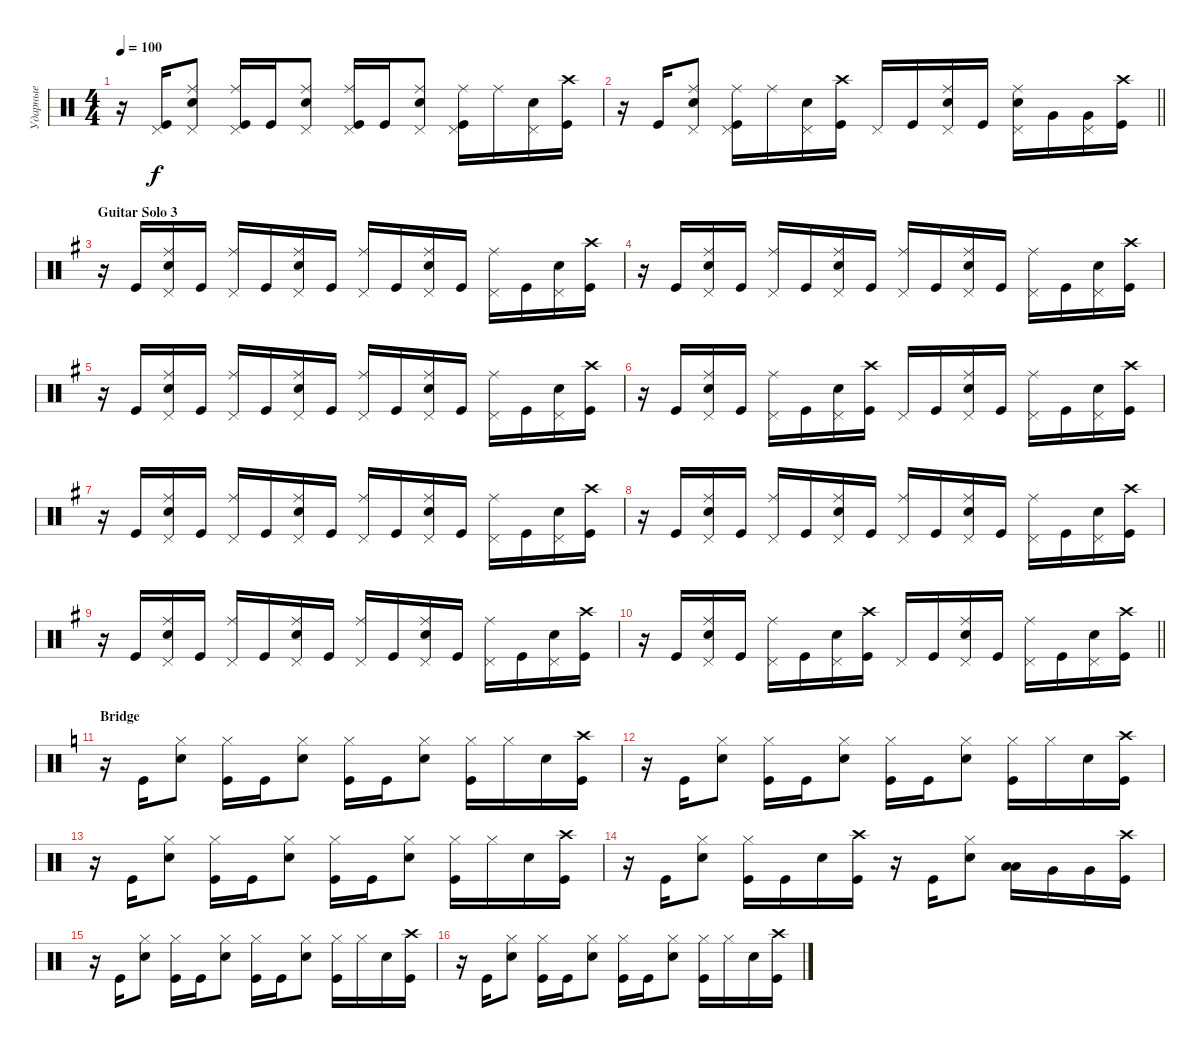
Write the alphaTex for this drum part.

\track ("Ударные" "Ударные") {instrument percussion}
\staff {score}
\articulation defaults
\ts (4 4)
\tempo 100
\clef neutral
\ks aminor
r.16{dy f} ("Kick (hit)" "Pedal Hi-Hat (hit)").16 ("Ride (middle)" "Snare (hit) 2" "Pedal Hi-Hat (hit)").8 ("Ride (middle)" "Kick (hit)" "Pedal Hi-Hat (hit)").16 "Kick (hit)".16 ("Snare (hit) 2" "Ride (middle)" "Pedal Hi-Hat (hit)").8 ("Kick (hit)" "Ride (middle)" "Pedal Hi-Hat (hit)").16 "Kick (hit)".16 ("Snare (hit) 2" "Ride (middle)" "Pedal Hi-Hat (hit)").8 ("Kick (hit)" "Ride (middle)" "Pedal Hi-Hat (hit)").16 "Ride (middle)".16 ("Snare (hit) 2" "Pedal Hi-Hat (hit)").16 ("Kick (hit)" "Crash high (hit)").16 |
\barLineRight lightlight
r.16 "Kick (hit)".16 ("Pedal Hi-Hat (hit)" "Snare (hit) 2" "Ride (middle)").8 ("Ride (middle)" "Kick (hit)" "Pedal Hi-Hat (hit)").16 "Ride (middle)".16 ("Snare (hit) 2" "Pedal Hi-Hat (hit)").16 ("Kick (hit)" "Crash high (hit)").16 "Pedal Hi-Hat (hit)".16 "Kick (hit)".16 ("Pedal Hi-Hat (hit)" "Snare (hit) 2" "Ride (middle)").16{bd 240} "Kick (hit)".16 ("Snare (hit) 2" "Ride (middle)" "Pedal Hi-Hat (hit)").16 "Very Low Tom (hit)".16 ("Very Low Tom (hit)" "Pedal Hi-Hat (hit)").16 ("Kick (hit)" "Crash high (hit)").16 |
\section ("" "Guitar Solo 3")
\ks eminor
r.16 "Kick (hit)".16 ("Snare (hit) 2" "Ride (middle)" "Pedal Hi-Hat (hit)").16 "Kick (hit)".16 ("Ride (middle)" "Pedal Hi-Hat (hit)").16 "Kick (hit)".16 ("Snare (hit) 2" "Ride (middle)" "Pedal Hi-Hat (hit)").16 "Kick (hit)".16 ("Ride (middle)" "Pedal Hi-Hat (hit)").16 "Kick (hit)".16 ("Snare (hit) 2" "Ride (middle)" "Pedal Hi-Hat (hit)").16 "Kick (hit)".16 ("Ride (middle)" "Pedal Hi-Hat (hit)").16 "Kick (hit)".16 ("Snare (hit) 2" "Pedal Hi-Hat (hit)").16 ("Kick (hit)" "Crash high (hit)").16 |
r.16 "Kick (hit)".16 ("Snare (hit) 2" "Ride (middle)" "Pedal Hi-Hat (hit)").16 "Kick (hit)".16 ("Ride (middle)" "Pedal Hi-Hat (hit)").16 "Kick (hit)".16 ("Snare (hit) 2" "Ride (middle)" "Pedal Hi-Hat (hit)").16 "Kick (hit)".16 ("Ride (middle)" "Pedal Hi-Hat (hit)").16 "Kick (hit)".16 ("Snare (hit) 2" "Ride (middle)" "Pedal Hi-Hat (hit)").16 "Kick (hit)".16 ("Ride (middle)" "Pedal Hi-Hat (hit)").16 "Kick (hit)".16 ("Snare (hit) 2" "Pedal Hi-Hat (hit)").16 ("Kick (hit)" "Crash high (hit)").16 |
r.16 "Kick (hit)".16 ("Snare (hit) 2" "Ride (middle)" "Pedal Hi-Hat (hit)").16 "Kick (hit)".16 ("Ride (middle)" "Pedal Hi-Hat (hit)").16 "Kick (hit)".16 ("Snare (hit) 2" "Ride (middle)" "Pedal Hi-Hat (hit)").16 "Kick (hit)".16 ("Ride (middle)" "Pedal Hi-Hat (hit)").16 "Kick (hit)".16 ("Snare (hit) 2" "Ride (middle)" "Pedal Hi-Hat (hit)").16 "Kick (hit)".16 ("Ride (middle)" "Pedal Hi-Hat (hit)").16 "Kick (hit)".16 ("Snare (hit) 2" "Pedal Hi-Hat (hit)").16 ("Kick (hit)" "Crash high (hit)").16 |
r.16 "Kick (hit)".16 ("Snare (hit) 2" "Ride (middle)" "Pedal Hi-Hat (hit)").16 "Kick (hit)".16 ("Pedal Hi-Hat (hit)" "Ride (middle)").16 "Kick (hit)".16 ("Snare (hit) 2" "Pedal Hi-Hat (hit)").16 ("Kick (hit)" "Crash high (hit)").16 "Pedal Hi-Hat (hit)".16 "Kick (hit)".16 ("Snare (hit) 2" "Ride (middle)" "Pedal Hi-Hat (hit)").16 "Kick (hit)".16 ("Ride (middle)" "Pedal Hi-Hat (hit)").16 "Kick (hit)".16 ("Snare (hit) 2" "Pedal Hi-Hat (hit)").16 ("Kick (hit)" "Crash high (hit)").16 |
r.16 "Kick (hit)".16 ("Snare (hit) 2" "Ride (middle)" "Pedal Hi-Hat (hit)").16 "Kick (hit)".16 ("Ride (middle)" "Pedal Hi-Hat (hit)").16 "Kick (hit)".16 ("Snare (hit) 2" "Ride (middle)" "Pedal Hi-Hat (hit)").16 "Kick (hit)".16 ("Ride (middle)" "Pedal Hi-Hat (hit)").16 "Kick (hit)".16 ("Snare (hit) 2" "Ride (middle)" "Pedal Hi-Hat (hit)").16 "Kick (hit)".16 ("Ride (middle)" "Pedal Hi-Hat (hit)").16 "Kick (hit)".16 ("Snare (hit) 2" "Pedal Hi-Hat (hit)").16 ("Kick (hit)" "Crash high (hit)").16 |
r.16 "Kick (hit)".16 ("Snare (hit) 2" "Ride (middle)" "Pedal Hi-Hat (hit)").16 "Kick (hit)".16 ("Ride (middle)" "Pedal Hi-Hat (hit)").16 "Kick (hit)".16 ("Snare (hit) 2" "Ride (middle)" "Pedal Hi-Hat (hit)").16 "Kick (hit)".16 ("Ride (middle)" "Pedal Hi-Hat (hit)").16 "Kick (hit)".16 ("Snare (hit) 2" "Ride (middle)" "Pedal Hi-Hat (hit)").16 "Kick (hit)".16 ("Ride (middle)" "Pedal Hi-Hat (hit)").16 "Kick (hit)".16 ("Snare (hit) 2" "Pedal Hi-Hat (hit)").16 ("Kick (hit)" "Crash high (hit)").16 |
r.16 "Kick (hit)".16 ("Snare (hit) 2" "Ride (middle)" "Pedal Hi-Hat (hit)").16 "Kick (hit)".16 ("Ride (middle)" "Pedal Hi-Hat (hit)").16 "Kick (hit)".16 ("Snare (hit) 2" "Ride (middle)" "Pedal Hi-Hat (hit)").16 "Kick (hit)".16 ("Ride (middle)" "Pedal Hi-Hat (hit)").16 "Kick (hit)".16 ("Snare (hit) 2" "Ride (middle)" "Pedal Hi-Hat (hit)").16 "Kick (hit)".16 ("Ride (middle)" "Pedal Hi-Hat (hit)").16 "Kick (hit)".16 ("Snare (hit) 2" "Pedal Hi-Hat (hit)").16 ("Kick (hit)" "Crash high (hit)").16 |
\barLineRight lightlight
r.16 "Kick (hit)".16 ("Snare (hit) 2" "Ride (middle)" "Pedal Hi-Hat (hit)").16 "Kick (hit)".16 ("Pedal Hi-Hat (hit)" "Ride (middle)").16 "Kick (hit)".16 ("Snare (hit) 2" "Pedal Hi-Hat (hit)").16 ("Kick (hit)" "Crash high (hit)").16 "Pedal Hi-Hat (hit)".16 "Kick (hit)".16 ("Snare (hit) 2" "Ride (middle)" "Pedal Hi-Hat (hit)").16 "Kick (hit)".16 ("Ride (middle)" "Pedal Hi-Hat (hit)").16 "Kick (hit)".16 ("Snare (hit) 2" "Pedal Hi-Hat (hit)").16 ("Kick (hit)" "Crash high (hit)").16 |
\section ("" "Bridge")
\ks aminor
r.16 "Kick (hit)".16 ("Hi-Hat (closed)" "Snare (hit) 2").8 ("Hi-Hat (closed)" "Kick (hit)").16 "Kick (hit)".16 ("Snare (hit) 2" "Hi-Hat (closed)").8 ("Kick (hit)" "Hi-Hat (closed)").16 "Kick (hit)".16 ("Snare (hit) 2" "Hi-Hat (closed)").8 ("Kick (hit)" "Hi-Hat (closed)").16 "Hi-Hat (closed)".16 "Snare (hit) 2".16 ("Kick (hit)" "Crash high (hit)").16 |
r.16 "Kick (hit)".16 ("Hi-Hat (closed)" "Snare (hit) 2").8 ("Hi-Hat (closed)" "Kick (hit)").16 "Kick (hit)".16 ("Snare (hit) 2" "Hi-Hat (closed)").8 ("Kick (hit)" "Hi-Hat (closed)").16 "Kick (hit)".16 ("Snare (hit) 2" "Hi-Hat (closed)").8 ("Kick (hit)" "Hi-Hat (closed)").16 "Hi-Hat (closed)".16 "Snare (hit) 2".16 ("Kick (hit)" "Crash high (hit)").16 |
r.16 "Kick (hit)".16 ("Hi-Hat (closed)" "Snare (hit) 2").8 ("Hi-Hat (closed)" "Kick (hit)").16 "Kick (hit)".16 ("Snare (hit) 2" "Hi-Hat (closed)").8 ("Kick (hit)" "Hi-Hat (closed)").16 "Kick (hit)".16 ("Snare (hit) 2" "Hi-Hat (closed)").8 ("Kick (hit)" "Hi-Hat (closed)").16 "Hi-Hat (closed)".16 "Snare (hit) 2".16 ("Kick (hit)" "Crash high (hit)").16 |
r.16 "Kick (hit)".16 ("Hi-Hat (closed)" "Snare (hit) 2").8 ("Hi-Hat (closed)" "Kick (hit)").16 "Kick (hit)".16 "Snare (hit) 2".16 ("Kick (hit)" "Crash high (hit)").16 r.16 "Kick (hit)".16 ("Snare (hit) 2" "Hi-Hat (closed)").8 ("Low Tom (hit)" "Low Tom (hit)").16{bd 240} "Very Low Tom (hit)".16 "Very Low Tom (hit)".16 ("Kick (hit)" "Crash high (hit)").16 |
r.16 "Kick (hit)".16 ("Hi-Hat (closed)" "Snare (hit) 2").8 ("Hi-Hat (closed)" "Kick (hit)").16 "Kick (hit)".16 ("Snare (hit) 2" "Hi-Hat (closed)").8 ("Kick (hit)" "Hi-Hat (closed)").16 "Kick (hit)".16 ("Snare (hit) 2" "Hi-Hat (closed)").8 ("Kick (hit)" "Hi-Hat (closed)").16 "Hi-Hat (closed)".16 "Snare (hit) 2".16 ("Kick (hit)" "Crash high (hit)").16 |
r.16 "Kick (hit)".16 ("Hi-Hat (closed)" "Snare (hit) 2").8 ("Hi-Hat (closed)" "Kick (hit)").16 "Kick (hit)".16 ("Snare (hit) 2" "Hi-Hat (closed)").8 ("Kick (hit)" "Hi-Hat (closed)").16 "Kick (hit)".16 ("Snare (hit) 2" "Hi-Hat (closed)").8 ("Kick (hit)" "Hi-Hat (closed)").16 "Hi-Hat (closed)".16 "Snare (hit) 2".16 ("Kick (hit)" "Crash high (hit)").16
